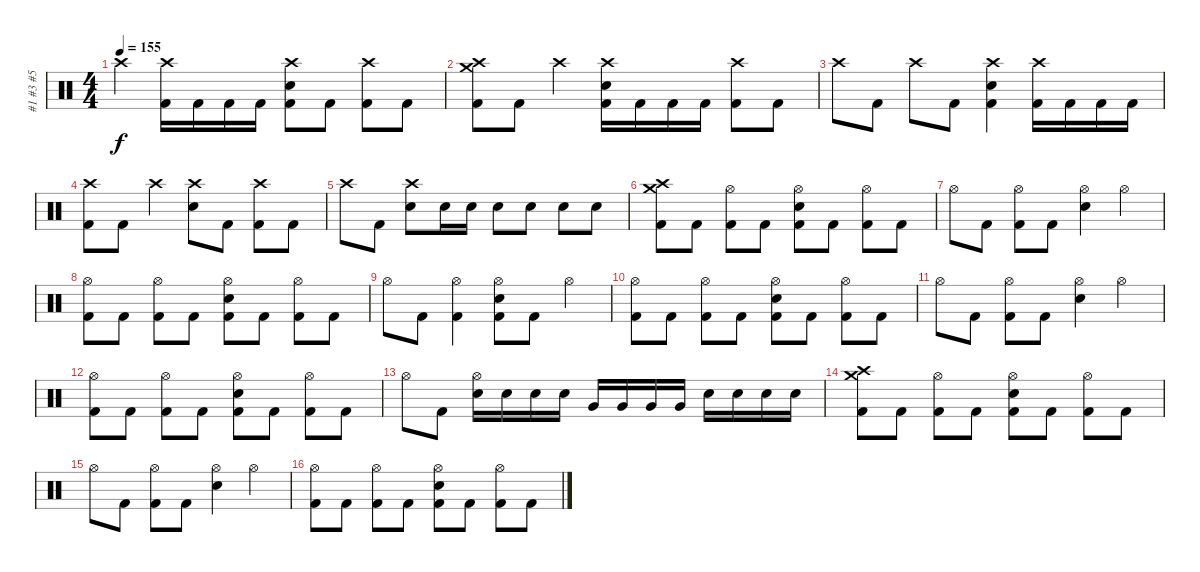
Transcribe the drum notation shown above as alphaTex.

\track ("#1 #3 #5" "#1 #3 #5") {instrument percussion}
\staff {score}
\articulation defaults
\ts (4 4)
\tempo 155
\clef neutral
\ks c "Crash high (hit)".4{dy f}
("Crash high (hit)" "Kick (hit) 2").16 "Kick (hit) 2".16 "Kick (hit) 2".16 "Kick (hit) 2".16 ("Crash high (hit)" "Electric Snare (hit)" "Kick (hit) 2").8 "Kick (hit) 2".8 ("Crash high (hit)" "Kick (hit) 2").8 "Kick (hit) 2".8 |
("Crash medium (hit)" "Crash high (hit)" "Kick (hit) 2").8 "Kick (hit) 2".8 "Crash high (hit)".4 ("Crash high (hit)" "Electric Snare (hit)" "Kick (hit) 2").16 "Kick (hit) 2".16 "Kick (hit) 2".16 "Kick (hit) 2".16 ("Crash high (hit)" "Kick (hit) 2").8 "Kick (hit) 2".8 |
"Crash high (hit)".8 "Kick (hit) 2".8 "Crash high (hit)".8 "Kick (hit) 2".8 ("Crash high (hit)" "Electric Snare (hit)" "Kick (hit) 2").4 ("Crash high (hit)" "Kick (hit) 2").16 "Kick (hit) 2".16 "Kick (hit) 2".16 "Kick (hit) 2".16 |
("Crash high (hit)" "Kick (hit) 2").8 "Kick (hit) 2".8 "Crash high (hit)".4 ("Crash high (hit)" "Electric Snare (hit)").8 "Kick (hit) 2".8 ("Crash high (hit)" "Kick (hit) 2").8 "Kick (hit) 2".8 |
"Crash high (hit)".8 "Kick (hit) 2".8 ("Crash high (hit)" "Electric Snare (hit)").8 "Electric Snare (hit)".16 "Electric Snare (hit)".16 "Electric Snare (hit)".8 "Electric Snare (hit)".8 "Electric Snare (hit)".8 "Electric Snare (hit)".8 |
\section ("" " ")
("Crash medium (hit)" "Crash high (hit)" "Kick (hit) 2").8 "Kick (hit) 2".8 ("Hi-Hat (open)" "Kick (hit) 2").8 "Kick (hit) 2".8 ("Hi-Hat (open)" "Electric Snare (hit)" "Kick (hit) 2").8 "Kick (hit) 2".8 ("Hi-Hat (open)" "Kick (hit) 2").8 "Kick (hit) 2".8 |
"Hi-Hat (open)".8 "Kick (hit) 2".8 ("Hi-Hat (open)" "Kick (hit) 2").8 "Kick (hit) 2".8 ("Hi-Hat (open)" "Electric Snare (hit)").4 "Hi-Hat (open)".4 |
("Hi-Hat (open)" "Kick (hit) 2").8 "Kick (hit) 2".8 ("Hi-Hat (open)" "Kick (hit) 2").8 "Kick (hit) 2".8 ("Hi-Hat (open)" "Electric Snare (hit)" "Kick (hit) 2").8 "Kick (hit) 2".8 ("Hi-Hat (open)" "Kick (hit) 2").8 "Kick (hit) 2".8 |
"Hi-Hat (open)".8 "Kick (hit) 2".8 ("Hi-Hat (open)" "Kick (hit) 2").4 ("Hi-Hat (open)" "Electric Snare (hit)" "Kick (hit) 2").8 "Kick (hit) 2".8 "Hi-Hat (open)".4 |
("Hi-Hat (open)" "Kick (hit) 2").8 "Kick (hit) 2".8 ("Hi-Hat (open)" "Kick (hit) 2").8 "Kick (hit) 2".8 ("Hi-Hat (open)" "Electric Snare (hit)" "Kick (hit) 2").8 "Kick (hit) 2".8 ("Hi-Hat (open)" "Kick (hit) 2").8 "Kick (hit) 2".8 |
"Hi-Hat (open)".8 "Kick (hit) 2".8 ("Hi-Hat (open)" "Kick (hit) 2").8 "Kick (hit) 2".8 ("Hi-Hat (open)" "Electric Snare (hit)").4 "Hi-Hat (open)".4 |
("Hi-Hat (open)" "Kick (hit) 2").8 "Kick (hit) 2".8 ("Hi-Hat (open)" "Kick (hit) 2").8 "Kick (hit) 2".8 ("Hi-Hat (open)" "Electric Snare (hit)" "Kick (hit) 2").8 "Kick (hit) 2".8 ("Hi-Hat (open)" "Kick (hit) 2").8 "Kick (hit) 2".8 |
"Hi-Hat (open)".8 "Kick (hit) 2".8 ("Hi-Hat (open)" "Electric Snare (hit)").16 "Electric Snare (hit)".16 "Electric Snare (hit)".16 "Electric Snare (hit)".16 "Very Low Tom (hit)".16 "Very Low Tom (hit)".16 "Very Low Tom (hit)".16 "Very Low Tom (hit)".16 "Electric Snare (hit)".16 "Electric Snare (hit)".16 "Electric Snare (hit)".16 "Electric Snare (hit)".16 |
("Crash medium (hit)" "Crash high (hit)" "Kick (hit) 2").8 "Kick (hit) 2".8 ("Hi-Hat (open)" "Kick (hit) 2").8 "Kick (hit) 2".8 ("Hi-Hat (open)" "Electric Snare (hit)" "Kick (hit) 2").8 "Kick (hit) 2".8 ("Hi-Hat (open)" "Kick (hit) 2").8 "Kick (hit) 2".8 |
"Hi-Hat (open)".8 "Kick (hit) 2".8 ("Hi-Hat (open)" "Kick (hit) 2").8 "Kick (hit) 2".8 ("Hi-Hat (open)" "Electric Snare (hit)").4 "Hi-Hat (open)".4 |
("Hi-Hat (open)" "Kick (hit) 2").8 "Kick (hit) 2".8 ("Hi-Hat (open)" "Kick (hit) 2").8 "Kick (hit) 2".8 ("Hi-Hat (open)" "Electric Snare (hit)" "Kick (hit) 2").8 "Kick (hit) 2".8 ("Hi-Hat (open)" "Kick (hit) 2").8 "Kick (hit) 2".8
